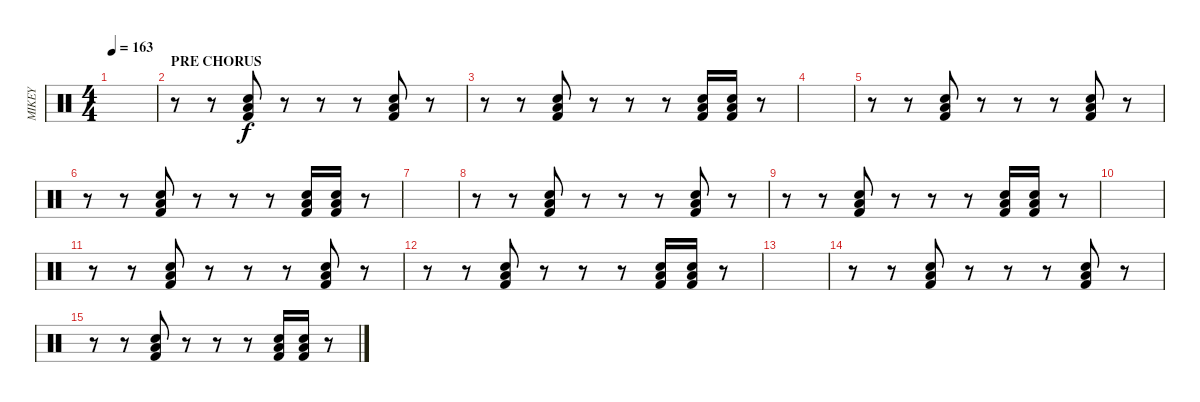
\track ("MIKEY" "MIKEY") {instrument percussion}
\staff {score}
\articulation defaults
\ts (4 4)
\tempo 163
\clef neutral
\ks c
|
\section ("" "PRE CHORUS")
r.8 r.8 ("Kick (hit) 2" "Low Floor Tom (hit)" "Electric Snare (hit)").8 r.8 r.8 r.8 ("Kick (hit) 2" "Low Floor Tom (hit)" "Electric Snare (hit)").8 r.8 |
r.8 r.8 ("Kick (hit) 2" "Low Floor Tom (hit)" "Electric Snare (hit)").8 r.8 r.8 r.8 ("Kick (hit) 2" "Low Floor Tom (hit)" "Electric Snare (hit)").16 ("Kick (hit) 2" "Low Floor Tom (hit)" "Electric Snare (hit)").16 r.8 |
|
r.8 r.8 ("Kick (hit) 2" "Low Floor Tom (hit)" "Electric Snare (hit)").8 r.8 r.8 r.8 ("Kick (hit) 2" "Low Floor Tom (hit)" "Electric Snare (hit)").8 r.8 |
r.8 r.8 ("Kick (hit) 2" "Low Floor Tom (hit)" "Electric Snare (hit)").8 r.8 r.8 r.8 ("Kick (hit) 2" "Low Floor Tom (hit)" "Electric Snare (hit)").16 ("Kick (hit) 2" "Low Floor Tom (hit)" "Electric Snare (hit)").16 r.8 |
|
r.8 r.8 ("Kick (hit) 2" "Low Floor Tom (hit)" "Electric Snare (hit)").8 r.8 r.8 r.8 ("Kick (hit) 2" "Low Floor Tom (hit)" "Electric Snare (hit)").8 r.8 |
r.8 r.8 ("Kick (hit) 2" "Low Floor Tom (hit)" "Electric Snare (hit)").8 r.8 r.8 r.8 ("Kick (hit) 2" "Low Floor Tom (hit)" "Electric Snare (hit)").16 ("Kick (hit) 2" "Low Floor Tom (hit)" "Electric Snare (hit)").16 r.8 |
|
r.8 r.8 ("Kick (hit) 2" "Low Floor Tom (hit)" "Electric Snare (hit)").8 r.8 r.8 r.8 ("Kick (hit) 2" "Low Floor Tom (hit)" "Electric Snare (hit)").8 r.8 |
r.8 r.8 ("Kick (hit) 2" "Low Floor Tom (hit)" "Electric Snare (hit)").8 r.8 r.8 r.8 ("Kick (hit) 2" "Low Floor Tom (hit)" "Electric Snare (hit)").16 ("Kick (hit) 2" "Low Floor Tom (hit)" "Electric Snare (hit)").16 r.8 |
|
r.8 r.8 ("Kick (hit) 2" "Low Floor Tom (hit)" "Electric Snare (hit)").8 r.8 r.8 r.8 ("Kick (hit) 2" "Low Floor Tom (hit)" "Electric Snare (hit)").8 r.8 |
r.8 r.8 ("Kick (hit) 2" "Low Floor Tom (hit)" "Electric Snare (hit)").8 r.8 r.8 r.8 ("Kick (hit) 2" "Low Floor Tom (hit)" "Electric Snare (hit)").16 ("Kick (hit) 2" "Low Floor Tom (hit)" "Electric Snare (hit)").16 r.8
